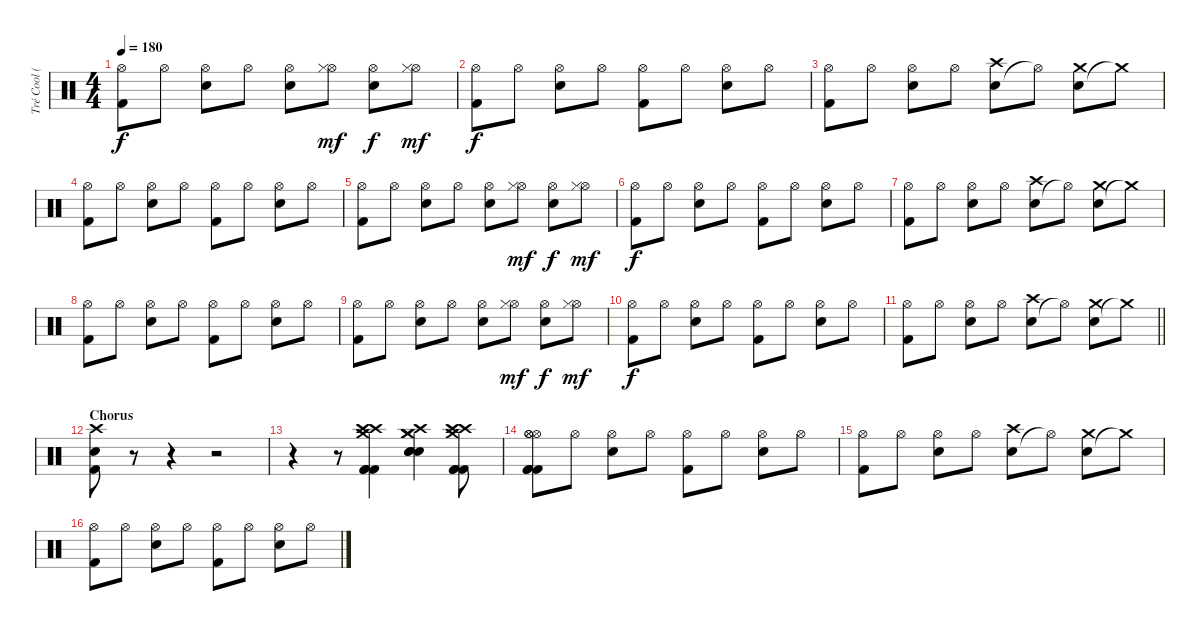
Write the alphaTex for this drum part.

\track ("Tré Cool (Drums)" "Tré Cool (") {instrument percussion}
\staff {score}
\articulation defaults
\ts (4 4)
\tempo 180
\clef neutral
\ks c
("Kick (hit) 2" "Hi-Hat (open)").8{dy f} "Hi-Hat (open)".8 ("Snare (hit) 2" "Hi-Hat (open)").8 "Hi-Hat (open)".8 ("Snare (hit) 2" "Hi-Hat (open)").8 ("Hi-Hat (open)" "Hi-Hat (closed)").8{dy mf} ("Snare (hit) 2" "Hi-Hat (open)").8{dy f} ("Hi-Hat (open)" "Hi-Hat (closed)").8{dy mf} |
("Kick (hit) 2" "Hi-Hat (open)").8{dy f} "Hi-Hat (open)".8 ("Snare (hit) 2" "Hi-Hat (open)").8 "Hi-Hat (open)".8 ("Kick (hit) 2" "Hi-Hat (open)").8 "Hi-Hat (open)".8 ("Snare (hit) 2" "Hi-Hat (open)").8 "Hi-Hat (open)".8 |
("Kick (hit) 2" "Hi-Hat (open)").8 "Hi-Hat (open)".8 ("Snare (hit) 2" "Hi-Hat (open)").8 "Hi-Hat (open)".8 ("Snare (hit) 2" "Crash high (hit)").8 "Hi-Hat (open)"{t}.8 ("Snare (hit) 2" "Crash medium (hit)").8 "Crash medium (hit)"{t}.8 |
("Kick (hit) 2" "Hi-Hat (open)").8 "Hi-Hat (open)".8 ("Snare (hit) 2" "Hi-Hat (open)").8 "Hi-Hat (open)".8 ("Kick (hit) 2" "Hi-Hat (open)").8 "Hi-Hat (open)".8 ("Snare (hit) 2" "Hi-Hat (open)").8 "Hi-Hat (open)".8 |
("Kick (hit) 2" "Hi-Hat (open)").8 "Hi-Hat (open)".8 ("Snare (hit) 2" "Hi-Hat (open)").8 "Hi-Hat (open)".8 ("Snare (hit) 2" "Hi-Hat (open)").8 ("Hi-Hat (open)" "Hi-Hat (closed)").8{dy mf} ("Snare (hit) 2" "Hi-Hat (open)").8{dy f} ("Hi-Hat (open)" "Hi-Hat (closed)").8{dy mf} |
("Kick (hit) 2" "Hi-Hat (open)").8{dy f} "Hi-Hat (open)".8 ("Snare (hit) 2" "Hi-Hat (open)").8 "Hi-Hat (open)".8 ("Kick (hit) 2" "Hi-Hat (open)").8 "Hi-Hat (open)".8 ("Snare (hit) 2" "Hi-Hat (open)").8 "Hi-Hat (open)".8 |
("Kick (hit) 2" "Hi-Hat (open)").8 "Hi-Hat (open)".8 ("Snare (hit) 2" "Hi-Hat (open)").8 "Hi-Hat (open)".8 ("Snare (hit) 2" "Crash high (hit)").8 "Hi-Hat (open)"{t}.8 ("Snare (hit) 2" "Crash medium (hit)").8 "Crash medium (hit)"{t}.8 |
("Kick (hit) 2" "Hi-Hat (open)").8 "Hi-Hat (open)".8 ("Snare (hit) 2" "Hi-Hat (open)").8 "Hi-Hat (open)".8 ("Kick (hit) 2" "Hi-Hat (open)").8 "Hi-Hat (open)".8 ("Snare (hit) 2" "Hi-Hat (open)").8 "Hi-Hat (open)".8 |
("Kick (hit) 2" "Hi-Hat (open)").8 "Hi-Hat (open)".8 ("Snare (hit) 2" "Hi-Hat (open)").8 "Hi-Hat (open)".8 ("Snare (hit) 2" "Hi-Hat (open)").8 ("Hi-Hat (open)" "Hi-Hat (closed)").8{dy mf} ("Snare (hit) 2" "Hi-Hat (open)").8{dy f} ("Hi-Hat (open)" "Hi-Hat (closed)").8{dy mf} |
("Kick (hit) 2" "Hi-Hat (open)").8{dy f} "Hi-Hat (open)".8 ("Snare (hit) 2" "Hi-Hat (open)").8 "Hi-Hat (open)".8 ("Kick (hit) 2" "Hi-Hat (open)").8 "Hi-Hat (open)".8 ("Snare (hit) 2" "Hi-Hat (open)").8 "Hi-Hat (open)".8 |
\barLineRight lightlight
("Kick (hit) 2" "Hi-Hat (open)").8 "Hi-Hat (open)".8 ("Snare (hit) 2" "Hi-Hat (open)").8 "Hi-Hat (open)".8 ("Snare (hit) 2" "Crash high (hit)").8 "Hi-Hat (open)"{t}.8 ("Snare (hit) 2" "Crash medium (hit)").8 "Crash medium (hit)"{t}.8 |
\section ("" "Chorus")
("Kick (hit) 2" "Snare (hit) 2" "Crash high (hit)").8 r.8 r.4 r.2 |
r.4 r.8 ("Kick (hit) 2" "Kick (hit) 2" "Kick (hit) 2" "Crash medium (hit)" "Crash high (hit)" "Crash high (hit)").4 ("Snare (hit) 2" "Snare (hit) 2" "Snare (hit) 2" "Crash high (hit)" "Crash medium (hit)" "Crash medium (hit)").4 ("Kick (hit) 2" "Kick (hit) 2" "Kick (hit) 2" "Crash medium (hit)" "Crash high (hit)" "Crash high (hit)").8 |
("Kick (hit) 2" "Kick (hit) 2" "Kick (hit) 2" "Hi-Hat (open)" "Hi-Hat (open)" "Hi-Hat (open)").8 "Hi-Hat (open)".8 ("Snare (hit) 2" "Hi-Hat (open)").8 "Hi-Hat (open)".8 ("Kick (hit) 2" "Hi-Hat (open)").8 "Hi-Hat (open)".8 ("Snare (hit) 2" "Hi-Hat (open)").8 "Hi-Hat (open)".8 |
("Kick (hit) 2" "Hi-Hat (open)").8 "Hi-Hat (open)".8 ("Snare (hit) 2" "Hi-Hat (open)").8 "Hi-Hat (open)".8 ("Snare (hit) 2" "Crash high (hit)").8 "Hi-Hat (open)"{t}.8 ("Snare (hit) 2" "Crash medium (hit)").8 "Crash medium (hit)"{t}.8 |
("Kick (hit) 2" "Hi-Hat (open)").8 "Hi-Hat (open)".8 ("Snare (hit) 2" "Hi-Hat (open)").8 "Hi-Hat (open)".8 ("Kick (hit) 2" "Hi-Hat (open)").8 "Hi-Hat (open)".8 ("Snare (hit) 2" "Hi-Hat (open)").8 "Hi-Hat (open)".8
